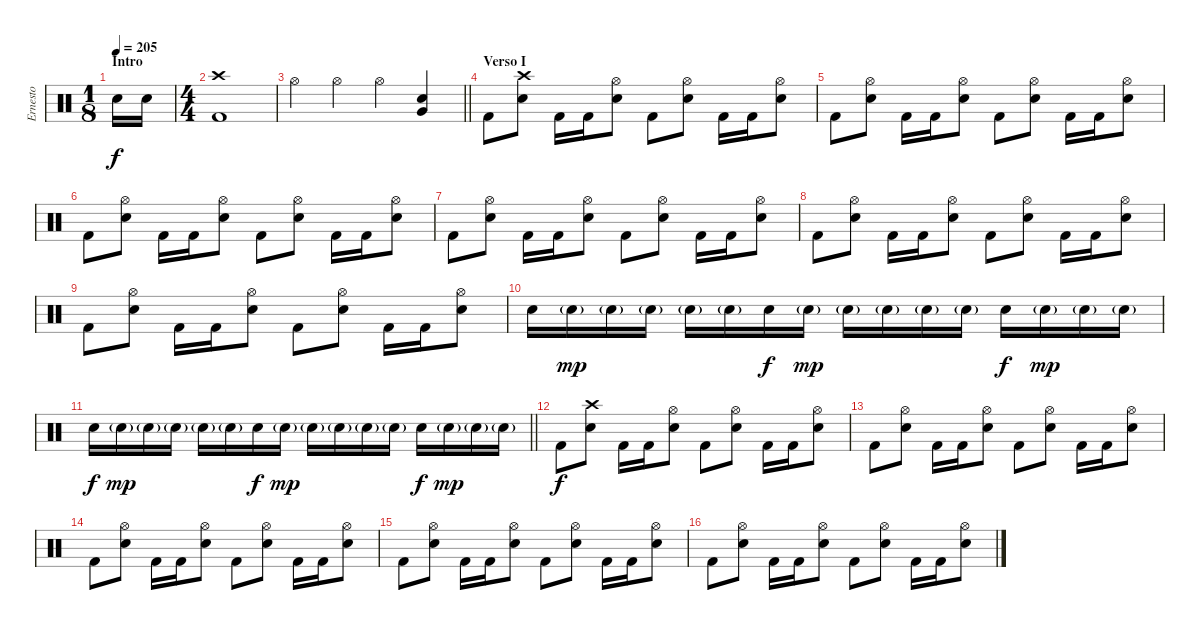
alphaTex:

\track ("Ernesto" "Ernesto") {instrument percussion}
\staff {score}
\articulation defaults
\ts (1 8)
\section ("" "Intro")
\tempo 205
\clef neutral
\ks c "Electric Snare (hit)".16{dy f} "Electric Snare (hit)".16
|
\ts (4 4)
("Crash high (hit)" "Kick (hit) 2").1 |
\barLineRight lightlight "Hi-Hat (open)".4 "Hi-Hat (open)".4 "Hi-Hat (open)".4
("Very Low Tom (hit)" "Electric Snare (hit)").4 |
\section ("" "Verso I")
"Kick (hit) 2".8 ("Crash high (hit)" "Electric Snare (hit)").8 "Kick (hit) 2".16 "Kick (hit) 2".16 ("Hi-Hat (open)" "Electric Snare (hit)").8 "Kick (hit) 2".8 ("Hi-Hat (open)" "Electric Snare (hit)").8 "Kick (hit) 2".16 "Kick (hit) 2".16 ("Hi-Hat (open)" "Electric Snare (hit)").8 |
"Kick (hit) 2".8 ("Hi-Hat (open)" "Electric Snare (hit)").8 "Kick (hit) 2".16 "Kick (hit) 2".16 ("Hi-Hat (open)" "Electric Snare (hit)").8 "Kick (hit) 2".8 ("Hi-Hat (open)" "Electric Snare (hit)").8 "Kick (hit) 2".16 "Kick (hit) 2".16 ("Hi-Hat (open)" "Electric Snare (hit)").8 |
"Kick (hit) 2".8 ("Hi-Hat (open)" "Electric Snare (hit)").8 "Kick (hit) 2".16 "Kick (hit) 2".16 ("Hi-Hat (open)" "Electric Snare (hit)").8 "Kick (hit) 2".8 ("Hi-Hat (open)" "Electric Snare (hit)").8 "Kick (hit) 2".16 "Kick (hit) 2".16 ("Hi-Hat (open)" "Electric Snare (hit)").8 |
"Kick (hit) 2".8 ("Hi-Hat (open)" "Electric Snare (hit)").8 "Kick (hit) 2".16 "Kick (hit) 2".16 ("Hi-Hat (open)" "Electric Snare (hit)").8 "Kick (hit) 2".8 ("Hi-Hat (open)" "Electric Snare (hit)").8 "Kick (hit) 2".16 "Kick (hit) 2".16 ("Hi-Hat (open)" "Electric Snare (hit)").8 |
"Kick (hit) 2".8 ("Hi-Hat (open)" "Electric Snare (hit)").8 "Kick (hit) 2".16 "Kick (hit) 2".16 ("Hi-Hat (open)" "Electric Snare (hit)").8 "Kick (hit) 2".8 ("Hi-Hat (open)" "Electric Snare (hit)").8 "Kick (hit) 2".16 "Kick (hit) 2".16 ("Hi-Hat (open)" "Electric Snare (hit)").8 |
"Kick (hit) 2".8 ("Hi-Hat (open)" "Electric Snare (hit)").8 "Kick (hit) 2".16 "Kick (hit) 2".16 ("Hi-Hat (open)" "Electric Snare (hit)").8 "Kick (hit) 2".8 ("Hi-Hat (open)" "Electric Snare (hit)").8 "Kick (hit) 2".16 "Kick (hit) 2".16 ("Hi-Hat (open)" "Electric Snare (hit)").8 |
"Electric Snare (hit)".16 "Electric Snare (hit)"{g}.16{dy mp} "Electric Snare (hit)"{g}.16 "Electric Snare (hit)"{g}.16 "Electric Snare (hit)"{g}.16 "Electric Snare (hit)"{g}.16 "Electric Snare (hit)".16{dy f} "Electric Snare (hit)"{g}.16{dy mp} "Electric Snare (hit)"{g}.16 "Electric Snare (hit)"{g}.16 "Electric Snare (hit)"{g}.16 "Electric Snare (hit)"{g}.16 "Electric Snare (hit)".16{dy f} "Electric Snare (hit)"{g}.16{dy mp} "Electric Snare (hit)"{g}.16 "Electric Snare (hit)"{g}.16 |
\barLineRight lightlight "Electric Snare (hit)".16{dy f} "Electric Snare (hit)"{g}.16{dy mp} "Electric Snare (hit)"{g}.16 "Electric Snare (hit)"{g}.16 "Electric Snare (hit)"{g}.16 "Electric Snare (hit)"{g}.16 "Electric Snare (hit)".16{dy f} "Electric Snare (hit)"{g}.16{dy mp} "Electric Snare (hit)"{g}.16 "Electric Snare (hit)"{g}.16 "Electric Snare (hit)"{g}.16 "Electric Snare (hit)"{g}.16 "Electric Snare (hit)".16{dy f} "Electric Snare (hit)"{g}.16{dy mp} "Electric Snare (hit)"{g}.16 "Electric Snare (hit)"{g}.16
|
"Kick (hit) 2".8{dy f} ("Crash high (hit)" "Electric Snare (hit)").8 "Kick (hit) 2".16 "Kick (hit) 2".16 ("Hi-Hat (open)" "Electric Snare (hit)").8 "Kick (hit) 2".8 ("Hi-Hat (open)" "Electric Snare (hit)").8 "Kick (hit) 2".16 "Kick (hit) 2".16 ("Hi-Hat (open)" "Electric Snare (hit)").8 |
"Kick (hit) 2".8 ("Hi-Hat (open)" "Electric Snare (hit)").8 "Kick (hit) 2".16 "Kick (hit) 2".16 ("Hi-Hat (open)" "Electric Snare (hit)").8 "Kick (hit) 2".8 ("Hi-Hat (open)" "Electric Snare (hit)").8 "Kick (hit) 2".16 "Kick (hit) 2".16 ("Hi-Hat (open)" "Electric Snare (hit)").8 |
"Kick (hit) 2".8 ("Hi-Hat (open)" "Electric Snare (hit)").8 "Kick (hit) 2".16 "Kick (hit) 2".16 ("Hi-Hat (open)" "Electric Snare (hit)").8 "Kick (hit) 2".8 ("Hi-Hat (open)" "Electric Snare (hit)").8 "Kick (hit) 2".16 "Kick (hit) 2".16 ("Hi-Hat (open)" "Electric Snare (hit)").8 |
"Kick (hit) 2".8 ("Hi-Hat (open)" "Electric Snare (hit)").8 "Kick (hit) 2".16 "Kick (hit) 2".16 ("Hi-Hat (open)" "Electric Snare (hit)").8 "Kick (hit) 2".8 ("Hi-Hat (open)" "Electric Snare (hit)").8 "Kick (hit) 2".16 "Kick (hit) 2".16 ("Hi-Hat (open)" "Electric Snare (hit)").8 |
"Kick (hit) 2".8 ("Hi-Hat (open)" "Electric Snare (hit)").8 "Kick (hit) 2".16 "Kick (hit) 2".16 ("Hi-Hat (open)" "Electric Snare (hit)").8 "Kick (hit) 2".8 ("Hi-Hat (open)" "Electric Snare (hit)").8 "Kick (hit) 2".16 "Kick (hit) 2".16 ("Hi-Hat (open)" "Electric Snare (hit)").8
